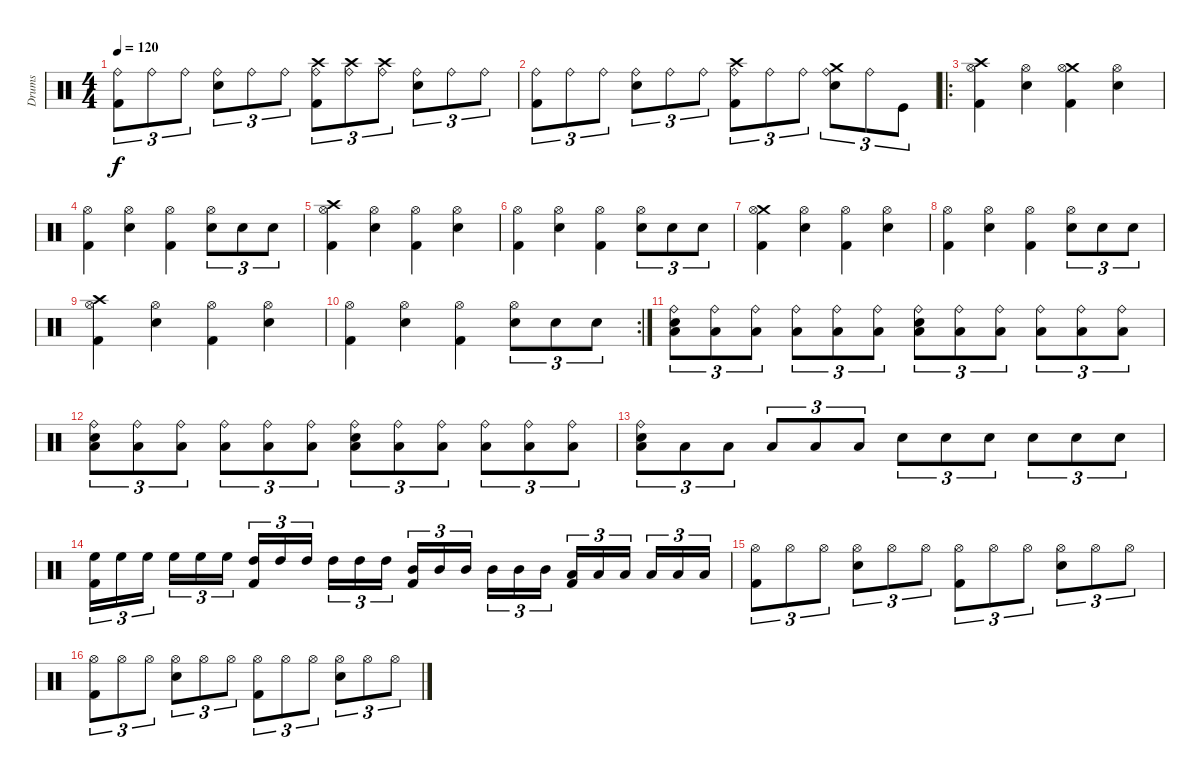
\track ("Drums" "Drums") {instrument percussion}
\staff {score}
\articulation defaults
\ts (4 4)
\tempo 120
\clef neutral
\ks c
("Ride (bell)" "Kick (hit) 2").8{tu (3 2) dy f} "Ride (bell)".8{tu (3 2)} "Ride (bell)".8{tu (3 2)} ("Ride (bell)" "Snare (hit) 2").8{tu (3 2)} "Ride (bell)".8{tu (3 2)} "Ride (bell)".8{tu (3 2)} ("Crash high (hit)" "Ride (bell)" "Kick (hit) 2").8{tu (3 2)} ("Crash high (hit)" "Ride (bell)").8{tu (3 2)} ("Crash high (hit)" "Ride (bell)").8{tu (3 2)} ("Ride (bell)" "Snare (hit) 2").8{tu (3 2)} "Ride (bell)".8{tu (3 2)} "Ride (bell)".8{tu (3 2)} |
("Ride (bell)" "Kick (hit) 2").8{tu (3 2)} "Ride (bell)".8{tu (3 2)} "Ride (bell)".8{tu (3 2)} ("Ride (bell)" "Snare (hit) 2").8{tu (3 2)} "Ride (bell)".8{tu (3 2)} "Ride (bell)".8{tu (3 2)} ("Crash high (hit)" "Ride (bell)" "Kick (hit) 2").8{tu (3 2)} "Ride (bell)".8{tu (3 2)} "Ride (bell)".8{tu (3 2)} ("Crash medium (hit)" "Ride (bell)" "Snare (hit) 2").8{tu (3 2)} "Ride (bell)".8{tu (3 2)} "Kick (hit)".8{tu (3 2)} |
\ro
("Crash high (hit)" "Hi-Hat (open)" "Kick (hit) 2").4 ("Hi-Hat (open)" "Snare (hit) 2").4 ("Crash medium (hit)" "Hi-Hat (open)" "Kick (hit) 2").4 ("Hi-Hat (open)" "Snare (hit) 2").4 |
("Hi-Hat (open)" "Kick (hit) 2").4 ("Hi-Hat (open)" "Snare (hit) 2").4 ("Hi-Hat (open)" "Kick (hit) 2").4 ("Hi-Hat (open)" "Snare (hit) 2").8{tu (3 2)} "Snare (hit) 2".8{tu (3 2)} "Snare (hit) 2".8{tu (3 2)} |
("Crash high (hit)" "Hi-Hat (open)" "Kick (hit) 2").4 ("Hi-Hat (open)" "Snare (hit) 2").4 ("Hi-Hat (open)" "Kick (hit) 2").4 ("Hi-Hat (open)" "Snare (hit) 2").4 |
("Hi-Hat (open)" "Kick (hit) 2").4 ("Hi-Hat (open)" "Snare (hit) 2").4 ("Hi-Hat (open)" "Kick (hit) 2").4 ("Hi-Hat (open)" "Snare (hit) 2").8{tu (3 2)} "Snare (hit) 2".8{tu (3 2)} "Snare (hit) 2".8{tu (3 2)} |
("Crash medium (hit)" "Hi-Hat (open)" "Kick (hit) 2").4 ("Hi-Hat (open)" "Snare (hit) 2").4 ("Hi-Hat (open)" "Kick (hit) 2").4 ("Hi-Hat (open)" "Snare (hit) 2").4 |
("Hi-Hat (open)" "Kick (hit) 2").4 ("Hi-Hat (open)" "Snare (hit) 2").4 ("Hi-Hat (open)" "Kick (hit) 2").4 ("Hi-Hat (open)" "Snare (hit) 2").8{tu (3 2)} "Snare (hit) 2".8{tu (3 2)} "Snare (hit) 2".8{tu (3 2)} |
("Crash high (hit)" "Hi-Hat (open)" "Kick (hit) 2").4 ("Hi-Hat (open)" "Snare (hit) 2").4 ("Hi-Hat (open)" "Kick (hit) 2").4 ("Hi-Hat (open)" "Snare (hit) 2").4 |
\rc 2
("Hi-Hat (open)" "Kick (hit) 2").4 ("Hi-Hat (open)" "Snare (hit) 2").4 ("Hi-Hat (open)" "Kick (hit) 2").4 ("Hi-Hat (open)" "Snare (hit) 2").8{tu (3 2)} "Snare (hit) 2".8{tu (3 2)} "Snare (hit) 2".8{tu (3 2)} |
("Ride (bell)" "Snare (hit) 2" "Low Floor Tom (hit)").8{tu (3 2)} ("Ride (bell)" "Low Floor Tom (hit)").8{tu (3 2)} ("Ride (bell)" "Low Floor Tom (hit)").8{tu (3 2)} ("Ride (bell)" "Low Floor Tom (hit)").8{tu (3 2)} ("Ride (bell)" "Low Floor Tom (hit)").8{tu (3 2)} ("Ride (bell)" "Low Floor Tom (hit)").8{tu (3 2)} ("Ride (bell)" "Snare (hit) 2" "Low Floor Tom (hit)").8{tu (3 2)} ("Ride (bell)" "Low Floor Tom (hit)").8{tu (3 2)} ("Ride (bell)" "Low Floor Tom (hit)").8{tu (3 2)} ("Ride (bell)" "Low Floor Tom (hit)").8{tu (3 2)} ("Ride (bell)" "Low Floor Tom (hit)").8{tu (3 2)} ("Ride (bell)" "Low Floor Tom (hit)").8{tu (3 2)} |
("Ride (bell)" "Snare (hit) 2" "Low Floor Tom (hit)").8{tu (3 2)} ("Ride (bell)" "Low Floor Tom (hit)").8{tu (3 2)} ("Ride (bell)" "Low Floor Tom (hit)").8{tu (3 2)} ("Ride (bell)" "Low Floor Tom (hit)").8{tu (3 2)} ("Ride (bell)" "Low Floor Tom (hit)").8{tu (3 2)} ("Ride (bell)" "Low Floor Tom (hit)").8{tu (3 2)} ("Ride (bell)" "Snare (hit) 2" "Low Floor Tom (hit)").8{tu (3 2)} ("Ride (bell)" "Low Floor Tom (hit)").8{tu (3 2)} ("Ride (bell)" "Low Floor Tom (hit)").8{tu (3 2)} ("Ride (bell)" "Low Floor Tom (hit)").8{tu (3 2)} ("Ride (bell)" "Low Floor Tom (hit)").8{tu (3 2)} ("Ride (bell)" "Low Floor Tom (hit)").8{tu (3 2)} |
("Ride (bell)" "Snare (hit) 2" "Low Floor Tom (hit)").8{tu (3 2)} "Low Floor Tom (hit)".8{tu (3 2)} "Low Floor Tom (hit)".8{tu (3 2)} "Low Floor Tom (hit)".8{tu (3 2)} "Low Floor Tom (hit)".8{tu (3 2)} "Low Floor Tom (hit)".8{tu (3 2)} "Snare (hit) 2".8{tu (3 2)} "Snare (hit) 2".8{tu (3 2)} "Snare (hit) 2".8{tu (3 2)} "Snare (hit) 2".8{tu (3 2)} "Snare (hit) 2".8{tu (3 2)} "Snare (hit) 2".8{tu (3 2)} |
("High Floor Tom (hit)" "Kick (hit) 2").16{tu (3 2)} "High Floor Tom (hit)".16{tu (3 2)} "High Floor Tom (hit)".16{tu (3 2)} "High Floor Tom (hit)".16{tu (3 2)} "High Floor Tom (hit)".16{tu (3 2)} "High Floor Tom (hit)".16{tu (3 2)} ("High Tom (hit)" "Kick (hit) 2").16{tu (3 2)} "High Tom (hit)".16{tu (3 2)} "High Tom (hit)".16{tu (3 2)} "High Tom (hit)".16{tu (3 2)} "High Tom (hit)".16{tu (3 2)} "High Tom (hit)".16{tu (3 2)} ("Mid Tom (hit)" "Kick (hit) 2").16{tu (3 2)} "Mid Tom (hit)".16{tu (3 2)} "Mid Tom (hit)".16{tu (3 2)} "Mid Tom (hit)".16{tu (3 2)} "Mid Tom (hit)".16{tu (3 2)} "Mid Tom (hit)".16{tu (3 2)} ("Low Tom (hit)" "Kick (hit) 2").16{tu (3 2)} "Low Tom (hit)".16{tu (3 2)} "Low Tom (hit)".16{tu (3 2)} "Low Tom (hit)".16{tu (3 2)} "Low Tom (hit)".16{tu (3 2)} "Low Tom (hit)".16{tu (3 2)} |
("Hi-Hat (open)" "Kick (hit) 2").8{tu (3 2)} "Hi-Hat (open)".8{tu (3 2)} "Hi-Hat (open)".8{tu (3 2)} ("Hi-Hat (open)" "Snare (hit) 2").8{tu (3 2)} "Hi-Hat (open)".8{tu (3 2)} "Hi-Hat (open)".8{tu (3 2)} ("Hi-Hat (open)" "Kick (hit) 2").8{tu (3 2)} "Hi-Hat (open)".8{tu (3 2)} "Hi-Hat (open)".8{tu (3 2)} ("Hi-Hat (open)" "Snare (hit) 2").8{tu (3 2)} "Hi-Hat (open)".8{tu (3 2)} "Hi-Hat (open)".8{tu (3 2)} |
("Hi-Hat (open)" "Kick (hit) 2").8{tu (3 2)} "Hi-Hat (open)".8{tu (3 2)} "Hi-Hat (open)".8{tu (3 2)} ("Hi-Hat (open)" "Snare (hit) 2").8{tu (3 2)} "Hi-Hat (open)".8{tu (3 2)} "Hi-Hat (open)".8{tu (3 2)} ("Hi-Hat (open)" "Kick (hit) 2").8{tu (3 2)} "Hi-Hat (open)".8{tu (3 2)} "Hi-Hat (open)".8{tu (3 2)} ("Hi-Hat (open)" "Snare (hit) 2").8{tu (3 2)} "Hi-Hat (open)".8{tu (3 2)} "Hi-Hat (open)".8{tu (3 2)}
